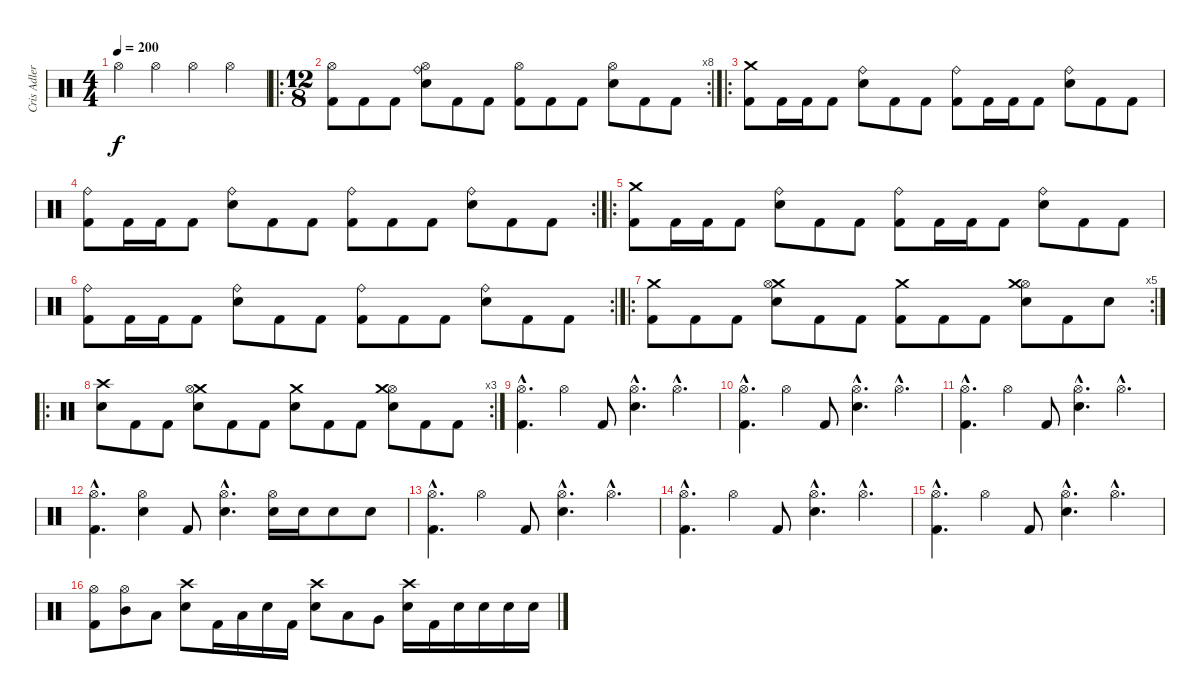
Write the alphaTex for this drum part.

\track ("Cris Adler" "Cris Adler") {instrument percussion}
\staff {score}
\articulation defaults
\ts (4 4)
\tempo 200
\clef neutral
\ks c "Hi-Hat (open)".4{dy f} "Hi-Hat (open)".4 "Hi-Hat (open)".4 "Hi-Hat (open)".4
|
\ro
\rc 8
\ts (12 8)
("Hi-Hat (open)" "Kick (hit) 2").8 "Kick (hit) 2".8 "Kick (hit) 2".8 ("Ride (bell)" "Hi-Hat (open)" "Electric Snare (hit)").8 "Kick (hit) 2".8 "Kick (hit) 2".8 ("Hi-Hat (open)" "Kick (hit) 2").8 "Kick (hit) 2".8 "Kick (hit) 2".8 ("Hi-Hat (open)" "Electric Snare (hit)").8 "Kick (hit) 2".8 "Kick (hit) 2".8 |
\ro
("Crash medium (hit)" "Kick (hit) 2").8 "Kick (hit) 2".16 "Kick (hit) 2".16 "Kick (hit) 2".8 ("Ride (bell)" "Electric Snare (hit)").8 "Kick (hit) 2".8 "Kick (hit) 2".8 ("Ride (bell)" "Kick (hit) 2").8 "Kick (hit) 2".16 "Kick (hit) 2".16 "Kick (hit) 2".8 ("Ride (bell)" "Electric Snare (hit)").8 "Kick (hit) 2".8 "Kick (hit) 2".8 |
\rc 2
("Ride (bell)" "Kick (hit) 2").8 "Kick (hit) 2".16 "Kick (hit) 2".16 "Kick (hit) 2".8 ("Ride (bell)" "Electric Snare (hit)").8 "Kick (hit) 2".8 "Kick (hit) 2".8 ("Ride (bell)" "Kick (hit) 2").8 "Kick (hit) 2".8 "Kick (hit) 2".8 ("Ride (bell)" "Electric Snare (hit)").8 "Kick (hit) 2".8 "Kick (hit) 2".8 |
\ro
("Crash medium (hit)" "Kick (hit) 2").8 "Kick (hit) 2".16 "Kick (hit) 2".16 "Kick (hit) 2".8 ("Ride (bell)" "Electric Snare (hit)").8 "Kick (hit) 2".8 "Kick (hit) 2".8 ("Ride (bell)" "Kick (hit) 2").8 "Kick (hit) 2".16 "Kick (hit) 2".16 "Kick (hit) 2".8 ("Ride (bell)" "Electric Snare (hit)").8 "Kick (hit) 2".8 "Kick (hit) 2".8 |
\rc 2
("Ride (bell)" "Kick (hit) 2").8 "Kick (hit) 2".16 "Kick (hit) 2".16 "Kick (hit) 2".8 ("Ride (bell)" "Electric Snare (hit)").8 "Kick (hit) 2".8 "Kick (hit) 2".8 ("Ride (bell)" "Kick (hit) 2").8 "Kick (hit) 2".8 "Kick (hit) 2".8 ("Ride (bell)" "Electric Snare (hit)").8 "Kick (hit) 2".8 "Kick (hit) 2".8 |
\ro
\rc 5
("Crash medium (hit)" "Kick (hit) 2").8 "Kick (hit) 2".8 "Kick (hit) 2".8 ("Crash medium (hit)" "Hi-Hat (open)" "Electric Snare (hit)").8 "Kick (hit) 2".8 "Kick (hit) 2".8 ("Crash medium (hit)" "Kick (hit) 2").8 "Kick (hit) 2".8 "Kick (hit) 2".8 ("Hi-Hat (open)" "Crash medium (hit)" "Electric Snare (hit)").8 "Kick (hit) 2".8 "Electric Snare (hit)".8 |
\ro
\rc 3
("Crash high (hit)" "Electric Snare (hit)").8 "Kick (hit) 2".8 "Kick (hit) 2".8 ("Crash medium (hit)" "Hi-Hat (open)" "Electric Snare (hit)").8 "Kick (hit) 2".8 "Kick (hit) 2".8 ("Crash medium (hit)" "Electric Snare (hit)").8 "Kick (hit) 2".8 "Kick (hit) 2".8 ("Hi-Hat (open)" "Crash medium (hit)" "Electric Snare (hit)").8 "Kick (hit) 2".8 "Kick (hit) 2".8 |
("Hi-Hat (open)"{hac} "Kick (hit) 2"{hac}).4{d} "Hi-Hat (open)".4 "Kick (hit) 2".8 ("Hi-Hat (open)"{hac} "Electric Snare (hit)"{hac}).4{d} "Hi-Hat (open)"{hac}.4{d} |
("Hi-Hat (open)"{hac} "Kick (hit) 2"{hac}).4{d} "Hi-Hat (open)".4 "Kick (hit) 2".8 ("Hi-Hat (open)"{hac} "Electric Snare (hit)"{hac}).4{d} "Hi-Hat (open)"{hac}.4{d} |
("Hi-Hat (open)"{hac} "Kick (hit) 2"{hac}).4{d} "Hi-Hat (open)".4 "Kick (hit) 2".8 ("Hi-Hat (open)"{hac} "Electric Snare (hit)"{hac}).4{d} "Hi-Hat (open)"{hac}.4{d} |
("Hi-Hat (open)"{hac} "Kick (hit) 2"{hac}).4{d} ("Hi-Hat (open)" "Electric Snare (hit)").4 "Kick (hit) 2".8 ("Hi-Hat (open)"{hac} "Electric Snare (hit)"{hac}).4{d} ("Hi-Hat (open)" "Electric Snare (hit)").16 "Electric Snare (hit)".16 "Electric Snare (hit)".8 "Electric Snare (hit)".8 |
("Hi-Hat (open)"{hac} "Kick (hit) 2"{hac}).4{d} "Hi-Hat (open)".4 "Kick (hit) 2".8 ("Hi-Hat (open)"{hac} "Electric Snare (hit)"{hac}).4{d} "Hi-Hat (open)"{hac}.4{d} |
("Hi-Hat (open)"{hac} "Kick (hit) 2"{hac}).4{d} "Hi-Hat (open)".4 "Kick (hit) 2".8 ("Hi-Hat (open)"{hac} "Electric Snare (hit)"{hac}).4{d} "Hi-Hat (open)"{hac}.4{d} |
("Hi-Hat (open)"{hac} "Kick (hit) 2"{hac}).4{d} "Hi-Hat (open)".4 "Kick (hit) 2".8 ("Hi-Hat (open)"{hac} "Electric Snare (hit)"{hac}).4{d} "Hi-Hat (open)"{hac}.4{d} |
("Hi-Hat (open)" "Kick (hit) 2").8 ("Hi-Hat (open)" "Mid Tom (hit)").8 "Low Tom (hit)".8 ("Crash high (hit)" "Electric Snare (hit)").8 "Kick (hit) 2".16 "Low Tom (hit)".16 "Electric Snare (hit)".16 "Kick (hit) 2".16 ("Crash high (hit)" "Electric Snare (hit)").8 "Low Tom (hit)".8 "Very Low Tom (hit)".8 ("Crash high (hit)" "Electric Snare (hit)").16 "Kick (hit) 2".16 "Electric Snare (hit)".16 "Electric Snare (hit)".16 "Electric Snare (hit)".16 "Electric Snare (hit)".16
